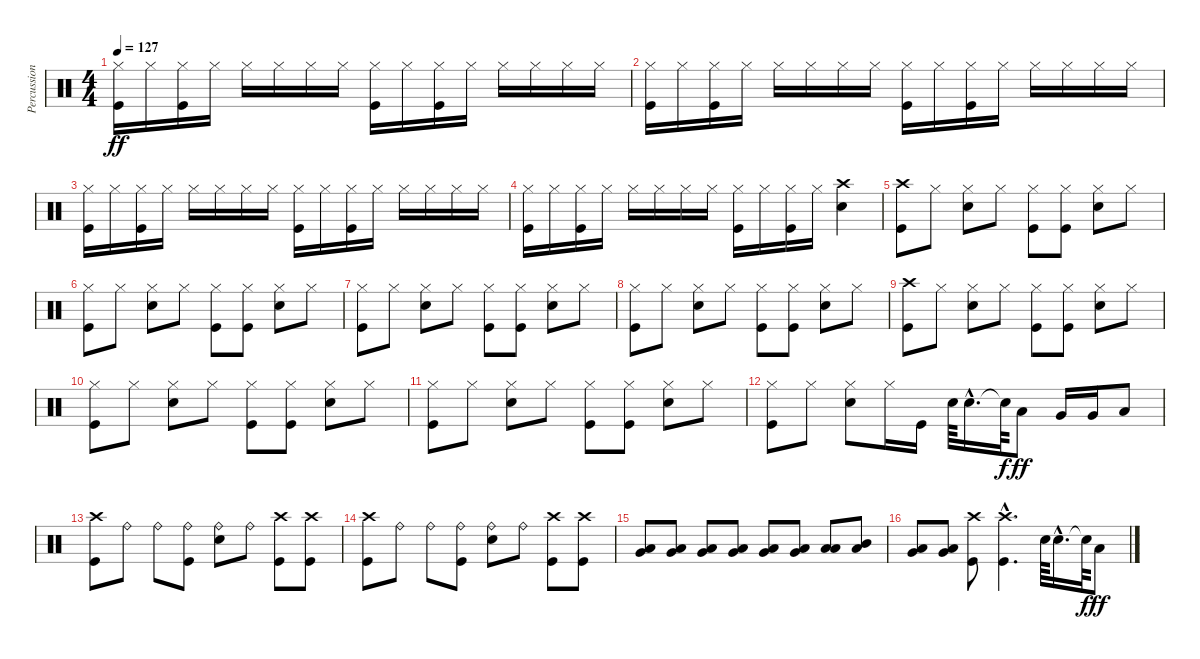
\track ("Percussion" "Percussion") {instrument percussion}
\staff {score}
\articulation defaults
\ts (4 4)
\tempo 127
\clef neutral
\ks c
("Hi-Hat (closed)" "Kick (hit)").16{dy ff} "Hi-Hat (closed)".16 ("Hi-Hat (closed)" "Kick (hit)").16 "Hi-Hat (closed)".16 "Hi-Hat (closed)".16 "Hi-Hat (closed)".16 "Hi-Hat (closed)".16 "Hi-Hat (closed)".16 ("Hi-Hat (closed)" "Kick (hit)").16 "Hi-Hat (closed)".16 ("Hi-Hat (closed)" "Kick (hit)").16 "Hi-Hat (closed)".16 "Hi-Hat (closed)".16 "Hi-Hat (closed)".16 "Hi-Hat (closed)".16 "Hi-Hat (closed)".16 |
("Hi-Hat (closed)" "Kick (hit)").16 "Hi-Hat (closed)".16 ("Hi-Hat (closed)" "Kick (hit)").16 "Hi-Hat (closed)".16 "Hi-Hat (closed)".16 "Hi-Hat (closed)".16 "Hi-Hat (closed)".16 "Hi-Hat (closed)".16 ("Hi-Hat (closed)" "Kick (hit)").16 "Hi-Hat (closed)".16 ("Hi-Hat (closed)" "Kick (hit)").16 "Hi-Hat (closed)".16 "Hi-Hat (closed)".16 "Hi-Hat (closed)".16 "Hi-Hat (closed)".16 "Hi-Hat (closed)".16 |
("Hi-Hat (closed)" "Kick (hit)").16 "Hi-Hat (closed)".16 ("Hi-Hat (closed)" "Kick (hit)").16 "Hi-Hat (closed)".16 "Hi-Hat (closed)".16 "Hi-Hat (closed)".16 "Hi-Hat (closed)".16 "Hi-Hat (closed)".16 ("Hi-Hat (closed)" "Kick (hit)").16 "Hi-Hat (closed)".16 ("Hi-Hat (closed)" "Kick (hit)").16 "Hi-Hat (closed)".16 "Hi-Hat (closed)".16 "Hi-Hat (closed)".16 "Hi-Hat (closed)".16 "Hi-Hat (closed)".16 |
("Hi-Hat (closed)" "Kick (hit)").16 "Hi-Hat (closed)".16 ("Hi-Hat (closed)" "Kick (hit)").16 "Hi-Hat (closed)".16 "Hi-Hat (closed)".16 "Hi-Hat (closed)".16 "Hi-Hat (closed)".16 "Hi-Hat (closed)".16 ("Hi-Hat (closed)" "Kick (hit)").16 "Hi-Hat (closed)".16 ("Hi-Hat (closed)" "Kick (hit)").16 "Hi-Hat (closed)".16 ("Crash high (hit)" "Snare (hit) 2").4 |
("Crash high (hit)" "Kick (hit)").8 "Hi-Hat (closed)".8 ("Hi-Hat (closed)" "Snare (hit) 2").8 "Hi-Hat (closed)".8 ("Hi-Hat (closed)" "Kick (hit)").8 ("Hi-Hat (closed)" "Kick (hit)").8 ("Hi-Hat (closed)" "Snare (hit) 2").8 "Hi-Hat (closed)".8 |
("Hi-Hat (closed)" "Kick (hit)").8 "Hi-Hat (closed)".8 ("Hi-Hat (closed)" "Snare (hit) 2").8 "Hi-Hat (closed)".8 ("Hi-Hat (closed)" "Kick (hit)").8 ("Hi-Hat (closed)" "Kick (hit)").8 ("Hi-Hat (closed)" "Snare (hit) 2").8 "Hi-Hat (closed)".8 |
("Hi-Hat (closed)" "Kick (hit)").8 "Hi-Hat (closed)".8 ("Hi-Hat (closed)" "Snare (hit) 2").8 "Hi-Hat (closed)".8 ("Hi-Hat (closed)" "Kick (hit)").8 ("Hi-Hat (closed)" "Kick (hit)").8 ("Hi-Hat (closed)" "Snare (hit) 2").8 "Hi-Hat (closed)".8 |
("Hi-Hat (closed)" "Kick (hit)").8 "Hi-Hat (closed)".8 ("Hi-Hat (closed)" "Snare (hit) 2").8 "Hi-Hat (closed)".8 ("Hi-Hat (closed)" "Kick (hit)").8 ("Hi-Hat (closed)" "Kick (hit)").8 ("Hi-Hat (closed)" "Snare (hit) 2").8 "Hi-Hat (closed)".8 |
("Crash high (hit)" "Kick (hit)").8 "Hi-Hat (closed)".8 ("Hi-Hat (closed)" "Snare (hit) 2").8 "Hi-Hat (closed)".8 ("Hi-Hat (closed)" "Kick (hit)").8 ("Hi-Hat (closed)" "Kick (hit)").8 ("Hi-Hat (closed)" "Snare (hit) 2").8 "Hi-Hat (closed)".8 |
("Hi-Hat (closed)" "Kick (hit)").8 "Hi-Hat (closed)".8 ("Hi-Hat (closed)" "Snare (hit) 2").8 "Hi-Hat (closed)".8 ("Hi-Hat (closed)" "Kick (hit)").8 ("Hi-Hat (closed)" "Kick (hit)").8 ("Hi-Hat (closed)" "Snare (hit) 2").8 "Hi-Hat (closed)".8 |
("Hi-Hat (closed)" "Kick (hit)").8 "Hi-Hat (closed)".8 ("Hi-Hat (closed)" "Snare (hit) 2").8 "Hi-Hat (closed)".8 ("Hi-Hat (closed)" "Kick (hit)").8 ("Hi-Hat (closed)" "Kick (hit)").8 ("Hi-Hat (closed)" "Snare (hit) 2").8 "Hi-Hat (closed)".8 |
("Hi-Hat (closed)" "Kick (hit)").8 "Hi-Hat (closed)".8 ("Hi-Hat (closed)" "Snare (hit) 2").8 "Hi-Hat (closed)".16 "Kick (hit)".16 "Snare (hit) 2".64 "Snare (hit) 2"{hac}.16{d} "Snare (hit)"{t}.64{dy f} "Low Tom (hit)".8{dy ff} "Very Low Tom (hit)".16 "Very Low Tom (hit)".16 "Low Floor Tom (hit)".8 |
("Crash high (hit)" "Kick (hit)").8 "Ride (bell)".8 "Ride (bell)".8 ("Ride (bell)" "Kick (hit)").8 ("Ride (bell)" "Snare (hit) 2").8 "Ride (bell)".8 ("Crash high (hit)" "Kick (hit)").8 ("Crash high (hit)" "Kick (hit)").8 |
("Crash high (hit)" "Kick (hit)").8 "Ride (bell)".8 "Ride (bell)".8 ("Ride (bell)" "Kick (hit)").8 ("Ride (bell)" "Snare (hit) 2").8 "Ride (bell)".8 ("Crash high (hit)" "Kick (hit)").8 ("Crash high (hit)" "Kick (hit)").8 |
("Very Low Tom (hit)" "Low Floor Tom (hit)").8 ("Very Low Tom (hit)" "Low Floor Tom (hit)").8 ("Very Low Tom (hit)" "Low Floor Tom (hit)").8 ("Very Low Tom (hit)" "Low Floor Tom (hit)").8 ("Very Low Tom (hit)" "Low Floor Tom (hit)").8 ("Very Low Tom (hit)" "Low Floor Tom (hit)").8 ("Low Tom (hit)" "Low Floor Tom (hit)").8 ("Mid Tom (hit)" "Low Floor Tom (hit)").8 |
("Very Low Tom (hit)" "Low Floor Tom (hit)").8 ("Very Low Tom (hit)" "Low Floor Tom (hit)").8 ("Crash high (hit)" "Kick (hit)").8 ("Crash high (hit)"{hac} "Kick (hit)"{hac}).4{d} "Snare (hit) 2".64 "Snare (hit) 2"{hac}.16{d} "Snare (hit)"{t}.64{dy f} "Low Tom (hit)".8{dy ff}
